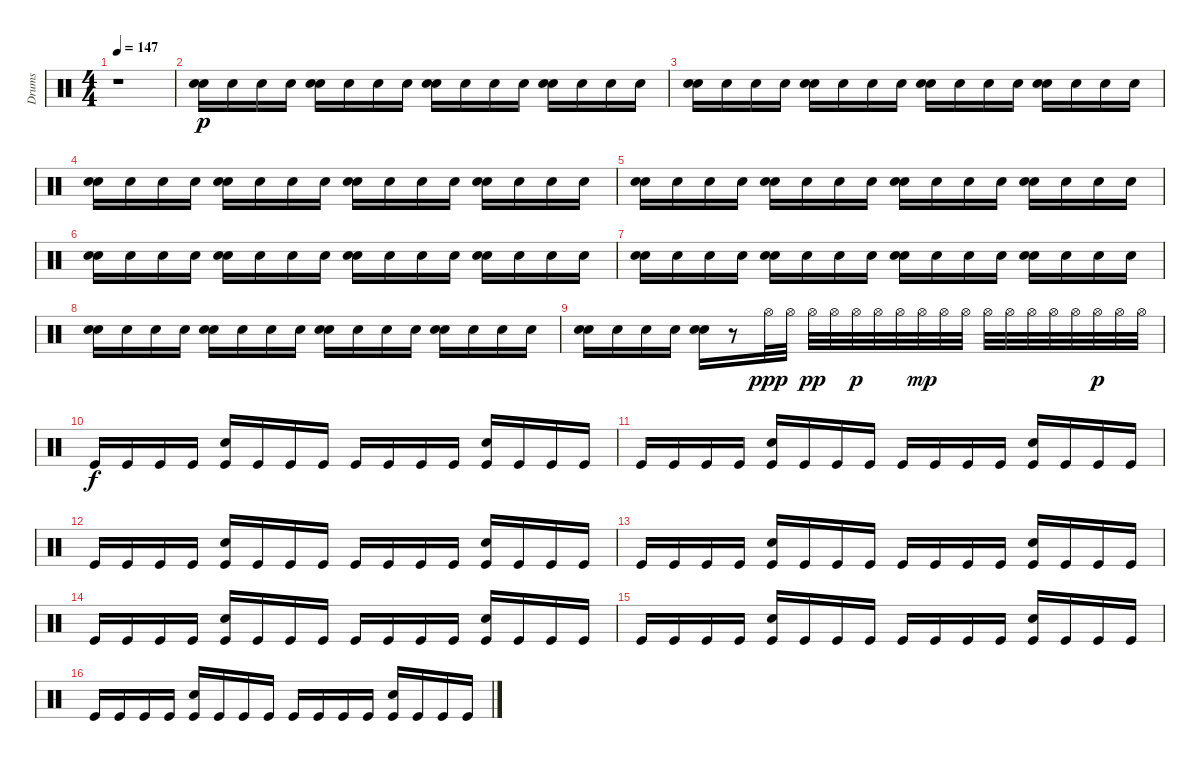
\track ("Drums" "Drums") {instrument percussion}
\staff {score}
\articulation defaults
\ts (4 4)
\tempo 147
\clef neutral
\ks c
r.1{dy mp} |
("Snare (hit) 2" "Electric Snare (hit)").16{dy p} "Electric Snare (hit)".16 "Electric Snare (hit)".16 "Electric Snare (hit)".16 ("Snare (hit) 2" "Electric Snare (hit)").16 "Electric Snare (hit)".16 "Electric Snare (hit)".16 "Electric Snare (hit)".16 ("Snare (hit) 2" "Electric Snare (hit)").16 "Electric Snare (hit)".16 "Electric Snare (hit)".16 "Electric Snare (hit)".16 ("Snare (hit) 2" "Electric Snare (hit)").16 "Electric Snare (hit)".16 "Electric Snare (hit)".16 "Electric Snare (hit)".16 |
("Snare (hit) 2" "Electric Snare (hit)").16 "Electric Snare (hit)".16 "Electric Snare (hit)".16 "Electric Snare (hit)".16 ("Snare (hit) 2" "Electric Snare (hit)").16 "Electric Snare (hit)".16 "Electric Snare (hit)".16 "Electric Snare (hit)".16 ("Snare (hit) 2" "Electric Snare (hit)").16 "Electric Snare (hit)".16 "Electric Snare (hit)".16 "Electric Snare (hit)".16 ("Snare (hit) 2" "Electric Snare (hit)").16 "Electric Snare (hit)".16 "Electric Snare (hit)".16 "Electric Snare (hit)".16 |
("Snare (hit) 2" "Electric Snare (hit)").16 "Electric Snare (hit)".16 "Electric Snare (hit)".16 "Electric Snare (hit)".16 ("Snare (hit) 2" "Electric Snare (hit)").16 "Electric Snare (hit)".16 "Electric Snare (hit)".16 "Electric Snare (hit)".16 ("Snare (hit) 2" "Electric Snare (hit)").16 "Electric Snare (hit)".16 "Electric Snare (hit)".16 "Electric Snare (hit)".16 ("Snare (hit) 2" "Electric Snare (hit)").16 "Electric Snare (hit)".16 "Electric Snare (hit)".16 "Electric Snare (hit)".16 |
("Snare (hit) 2" "Electric Snare (hit)").16 "Electric Snare (hit)".16 "Electric Snare (hit)".16 "Electric Snare (hit)".16 ("Snare (hit) 2" "Electric Snare (hit)").16 "Electric Snare (hit)".16 "Electric Snare (hit)".16 "Electric Snare (hit)".16 ("Snare (hit) 2" "Electric Snare (hit)").16 "Electric Snare (hit)".16 "Electric Snare (hit)".16 "Electric Snare (hit)".16 ("Snare (hit) 2" "Electric Snare (hit)").16 "Electric Snare (hit)".16 "Electric Snare (hit)".16 "Electric Snare (hit)".16 |
("Snare (hit) 2" "Electric Snare (hit)").16 "Electric Snare (hit)".16 "Electric Snare (hit)".16 "Electric Snare (hit)".16 ("Snare (hit) 2" "Electric Snare (hit)").16 "Electric Snare (hit)".16 "Electric Snare (hit)".16 "Electric Snare (hit)".16 ("Snare (hit) 2" "Electric Snare (hit)").16 "Electric Snare (hit)".16 "Electric Snare (hit)".16 "Electric Snare (hit)".16 ("Snare (hit) 2" "Electric Snare (hit)").16 "Electric Snare (hit)".16 "Electric Snare (hit)".16 "Electric Snare (hit)".16 |
("Snare (hit) 2" "Electric Snare (hit)").16 "Electric Snare (hit)".16 "Electric Snare (hit)".16 "Electric Snare (hit)".16 ("Snare (hit) 2" "Electric Snare (hit)").16 "Electric Snare (hit)".16 "Electric Snare (hit)".16 "Electric Snare (hit)".16 ("Snare (hit) 2" "Electric Snare (hit)").16 "Electric Snare (hit)".16 "Electric Snare (hit)".16 "Electric Snare (hit)".16 ("Snare (hit) 2" "Electric Snare (hit)").16 "Electric Snare (hit)".16 "Electric Snare (hit)".16 "Electric Snare (hit)".16 |
("Snare (hit) 2" "Electric Snare (hit)").16 "Electric Snare (hit)".16 "Electric Snare (hit)".16 "Electric Snare (hit)".16 ("Snare (hit) 2" "Electric Snare (hit)").16 "Electric Snare (hit)".16 "Electric Snare (hit)".16 "Electric Snare (hit)".16 ("Snare (hit) 2" "Electric Snare (hit)").16 "Electric Snare (hit)".16 "Electric Snare (hit)".16 "Electric Snare (hit)".16 ("Snare (hit) 2" "Electric Snare (hit)").16 "Electric Snare (hit)".16 "Electric Snare (hit)".16 "Electric Snare (hit)".16 |
("Snare (hit) 2" "Electric Snare (hit)").16 "Electric Snare (hit)".16 "Electric Snare (hit)".16 "Electric Snare (hit)".16 ("Snare (hit) 2" "Electric Snare (hit)").16 r.8 "Hi-Hat (open)".32{dy ppp} "Hi-Hat (open)".32 "Hi-Hat (open)".32{dy pp} "Hi-Hat (open)".32 "Hi-Hat (open)".32{dy p} "Hi-Hat (open)".32 "Hi-Hat (open)".32 "Hi-Hat (open)".32{dy mp} "Hi-Hat (open)".32 "Hi-Hat (open)".32 "Hi-Hat (open)".32 "Hi-Hat (open)".32 "Hi-Hat (open)".32 "Hi-Hat (open)".32 "Hi-Hat (open)".32 "Hi-Hat (open)".32{dy p} "Hi-Hat (open)".32 "Hi-Hat (open)".32 |
"Kick (hit)".16{dy f} "Kick (hit)".16 "Kick (hit)".16 "Kick (hit)".16 ("Snare (hit) 2" "Kick (hit)").16 "Kick (hit)".16 "Kick (hit)".16 "Kick (hit)".16 "Kick (hit)".16 "Kick (hit)".16 "Kick (hit)".16 "Kick (hit)".16 ("Snare (hit) 2" "Kick (hit)").16 "Kick (hit)".16 "Kick (hit)".16 "Kick (hit)".16 |
"Kick (hit)".16 "Kick (hit)".16 "Kick (hit)".16 "Kick (hit)".16 ("Snare (hit) 2" "Kick (hit)").16 "Kick (hit)".16 "Kick (hit)".16 "Kick (hit)".16 "Kick (hit)".16 "Kick (hit)".16 "Kick (hit)".16 "Kick (hit)".16 ("Snare (hit) 2" "Kick (hit)").16 "Kick (hit)".16 "Kick (hit)".16 "Kick (hit)".16 |
"Kick (hit)".16 "Kick (hit)".16 "Kick (hit)".16 "Kick (hit)".16 ("Snare (hit) 2" "Kick (hit)").16 "Kick (hit)".16 "Kick (hit)".16 "Kick (hit)".16 "Kick (hit)".16 "Kick (hit)".16 "Kick (hit)".16 "Kick (hit)".16 ("Snare (hit) 2" "Kick (hit)").16 "Kick (hit)".16 "Kick (hit)".16 "Kick (hit)".16 |
"Kick (hit)".16 "Kick (hit)".16 "Kick (hit)".16 "Kick (hit)".16 ("Snare (hit) 2" "Kick (hit)").16 "Kick (hit)".16 "Kick (hit)".16 "Kick (hit)".16 "Kick (hit)".16 "Kick (hit)".16 "Kick (hit)".16 "Kick (hit)".16 ("Snare (hit) 2" "Kick (hit)").16 "Kick (hit)".16 "Kick (hit)".16 "Kick (hit)".16 |
"Kick (hit)".16 "Kick (hit)".16 "Kick (hit)".16 "Kick (hit)".16 ("Snare (hit) 2" "Kick (hit)").16 "Kick (hit)".16 "Kick (hit)".16 "Kick (hit)".16 "Kick (hit)".16 "Kick (hit)".16 "Kick (hit)".16 "Kick (hit)".16 ("Snare (hit) 2" "Kick (hit)").16 "Kick (hit)".16 "Kick (hit)".16 "Kick (hit)".16 |
"Kick (hit)".16 "Kick (hit)".16 "Kick (hit)".16 "Kick (hit)".16 ("Snare (hit) 2" "Kick (hit)").16 "Kick (hit)".16 "Kick (hit)".16 "Kick (hit)".16 "Kick (hit)".16 "Kick (hit)".16 "Kick (hit)".16 "Kick (hit)".16 ("Snare (hit) 2" "Kick (hit)").16 "Kick (hit)".16 "Kick (hit)".16 "Kick (hit)".16 |
"Kick (hit)".16 "Kick (hit)".16 "Kick (hit)".16 "Kick (hit)".16 ("Snare (hit) 2" "Kick (hit)").16 "Kick (hit)".16 "Kick (hit)".16 "Kick (hit)".16 "Kick (hit)".16 "Kick (hit)".16 "Kick (hit)".16 "Kick (hit)".16 ("Snare (hit) 2" "Kick (hit)").16 "Kick (hit)".16 "Kick (hit)".16 "Kick (hit)".16
